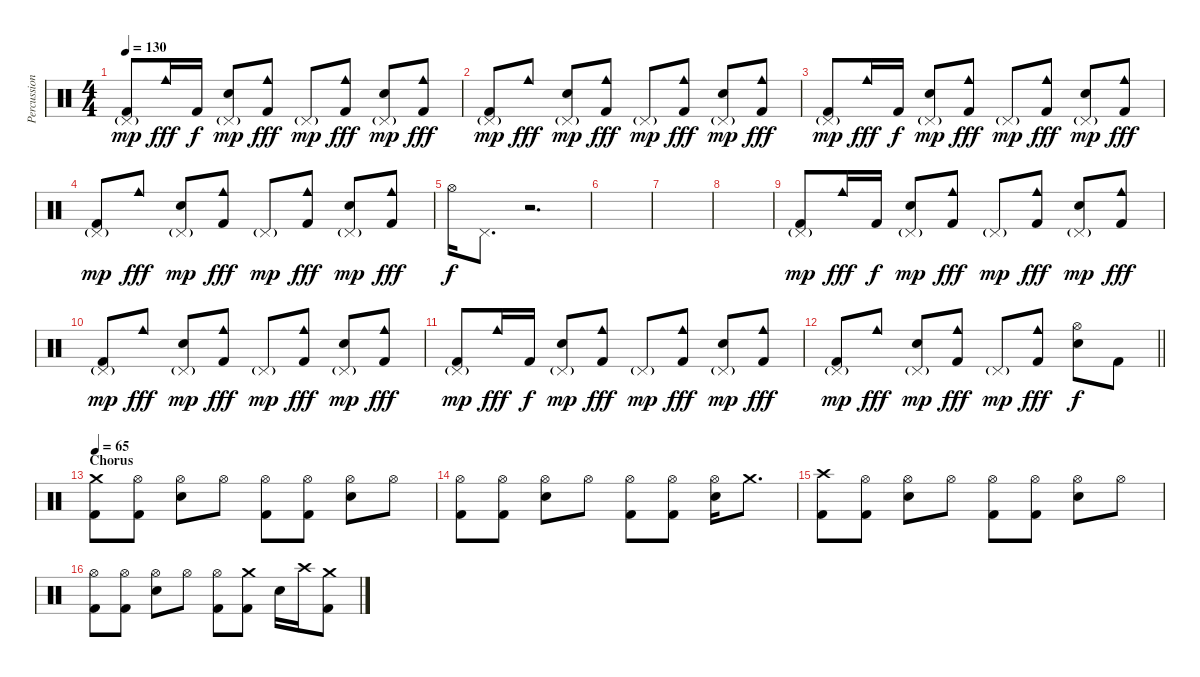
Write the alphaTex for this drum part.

\track ("Percussion" "Percussion") {instrument percussion}
\staff {score}
\articulation defaults
\ts (4 4)
\tempo 130
\clef neutral
\ks c
("Pedal Hi-Hat (hit)"{g} "Kick (hit) 2").8{dy mp} "Cowbell medium (hit)".16{dy fff} "Kick (hit) 2".16{dy f} ("Pedal Hi-Hat (hit)"{g} "Electric Snare (hit)").8{dy mp} ("Cowbell medium (hit)" "Kick (hit) 2").8{dy fff} "Pedal Hi-Hat (hit)"{g}.8{dy mp} ("Cowbell medium (hit)" "Kick (hit) 2").8{dy fff} ("Pedal Hi-Hat (hit)"{g} "Electric Snare (hit)").8{dy mp} ("Cowbell medium (hit)" "Kick (hit) 2").8{dy fff} |
("Pedal Hi-Hat (hit)"{g} "Kick (hit) 2").8{dy mp} "Cowbell medium (hit)".8{dy fff} ("Pedal Hi-Hat (hit)"{g} "Electric Snare (hit)").8{dy mp} ("Cowbell medium (hit)" "Kick (hit) 2").8{dy fff} "Pedal Hi-Hat (hit)"{g}.8{dy mp} ("Cowbell medium (hit)" "Kick (hit) 2").8{dy fff} ("Pedal Hi-Hat (hit)"{g} "Electric Snare (hit)").8{dy mp} ("Cowbell medium (hit)" "Kick (hit) 2").8{dy fff} |
("Pedal Hi-Hat (hit)"{g} "Kick (hit) 2").8{dy mp} "Cowbell medium (hit)".16{dy fff} "Kick (hit) 2".16{dy f} ("Pedal Hi-Hat (hit)"{g} "Electric Snare (hit)").8{dy mp} ("Cowbell medium (hit)" "Kick (hit) 2").8{dy fff} "Pedal Hi-Hat (hit)"{g}.8{dy mp} ("Cowbell medium (hit)" "Kick (hit) 2").8{dy fff} ("Pedal Hi-Hat (hit)"{g} "Electric Snare (hit)").8{dy mp} ("Cowbell medium (hit)" "Kick (hit) 2").8{dy fff} |
("Pedal Hi-Hat (hit)"{g} "Kick (hit) 2").8{dy mp} "Cowbell medium (hit)".8{dy fff} ("Pedal Hi-Hat (hit)"{g} "Electric Snare (hit)").8{dy mp} ("Cowbell medium (hit)" "Kick (hit) 2").8{dy fff} "Pedal Hi-Hat (hit)"{g}.8{dy mp} ("Cowbell medium (hit)" "Kick (hit) 2").8{dy fff} ("Pedal Hi-Hat (hit)"{g} "Electric Snare (hit)").8{dy mp} ("Cowbell medium (hit)" "Kick (hit) 2").8{dy fff} |
"Hi-Hat (open)".16{dy f} "Pedal Hi-Hat (hit)".8{d} r.2{d} |
|
|
|
("Pedal Hi-Hat (hit)"{g} "Kick (hit) 2").8{dy mp} "Cowbell medium (hit)".16{dy fff} "Kick (hit) 2".16{dy f} ("Pedal Hi-Hat (hit)"{g} "Electric Snare (hit)").8{dy mp} ("Cowbell medium (hit)" "Kick (hit) 2").8{dy fff} "Pedal Hi-Hat (hit)"{g}.8{dy mp} ("Cowbell medium (hit)" "Kick (hit) 2").8{dy fff} ("Pedal Hi-Hat (hit)"{g} "Electric Snare (hit)").8{dy mp} ("Cowbell medium (hit)" "Kick (hit) 2").8{dy fff} |
("Pedal Hi-Hat (hit)"{g} "Kick (hit) 2").8{dy mp} "Cowbell medium (hit)".8{dy fff} ("Pedal Hi-Hat (hit)"{g} "Electric Snare (hit)").8{dy mp} ("Cowbell medium (hit)" "Kick (hit) 2").8{dy fff} "Pedal Hi-Hat (hit)"{g}.8{dy mp} ("Cowbell medium (hit)" "Kick (hit) 2").8{dy fff} ("Pedal Hi-Hat (hit)"{g} "Electric Snare (hit)").8{dy mp} ("Cowbell medium (hit)" "Kick (hit) 2").8{dy fff} |
("Pedal Hi-Hat (hit)"{g} "Kick (hit) 2").8{dy mp} "Cowbell medium (hit)".16{dy fff} "Kick (hit) 2".16{dy f} ("Pedal Hi-Hat (hit)"{g} "Electric Snare (hit)").8{dy mp} ("Cowbell medium (hit)" "Kick (hit) 2").8{dy fff} "Pedal Hi-Hat (hit)"{g}.8{dy mp} ("Cowbell medium (hit)" "Kick (hit) 2").8{dy fff} ("Pedal Hi-Hat (hit)"{g} "Electric Snare (hit)").8{dy mp} ("Cowbell medium (hit)" "Kick (hit) 2").8{dy fff} |
\barLineRight lightlight
("Pedal Hi-Hat (hit)"{g} "Kick (hit) 2").8{dy mp} "Cowbell medium (hit)".8{dy fff} ("Pedal Hi-Hat (hit)"{g} "Electric Snare (hit)").8{dy mp} ("Cowbell medium (hit)" "Kick (hit) 2").8{dy fff} "Pedal Hi-Hat (hit)"{g}.8{dy mp} ("Cowbell medium (hit)" "Kick (hit) 2").8{dy fff} ("Hi-Hat (open)" "Electric Snare (hit)").8{dy f} "Kick (hit) 2".8 |
\section ("" "Chorus")
\tempo 65
("Crash medium (hit)" "Kick (hit) 2").8 ("Hi-Hat (open)" "Kick (hit) 2").8 ("Hi-Hat (open)" "Electric Snare (hit)").8 "Hi-Hat (open)".8 ("Hi-Hat (open)" "Kick (hit) 2").8 ("Hi-Hat (open)" "Kick (hit) 2").8 ("Hi-Hat (open)" "Electric Snare (hit)").8 "Hi-Hat (open)".8 |
("Hi-Hat (open)" "Kick (hit) 2").8 ("Hi-Hat (open)" "Kick (hit) 2").8 ("Hi-Hat (open)" "Electric Snare (hit)").8 "Hi-Hat (open)".8 ("Hi-Hat (open)" "Kick (hit) 2").8 ("Hi-Hat (open)" "Kick (hit) 2").8 ("Hi-Hat (open)" "Electric Snare (hit)").16 "Crash medium (hit)".8{d} |
("Crash high (hit)" "Kick (hit) 2").8 ("Hi-Hat (open)" "Kick (hit) 2").8 ("Hi-Hat (open)" "Electric Snare (hit)").8 "Hi-Hat (open)".8 ("Hi-Hat (open)" "Kick (hit) 2").8 ("Hi-Hat (open)" "Kick (hit) 2").8 ("Hi-Hat (open)" "Electric Snare (hit)").8 "Hi-Hat (open)".8 |
("Hi-Hat (open)" "Kick (hit) 2").8 ("Hi-Hat (open)" "Kick (hit) 2").8 ("Hi-Hat (open)" "Electric Snare (hit)").8 "Hi-Hat (open)".8 ("Hi-Hat (open)" "Kick (hit) 2").8 ("Crash medium (hit)" "Kick (hit) 2").8 "Electric Snare (hit)".16 "Crash high (hit)".16 ("Crash medium (hit)" "Kick (hit) 2").8
